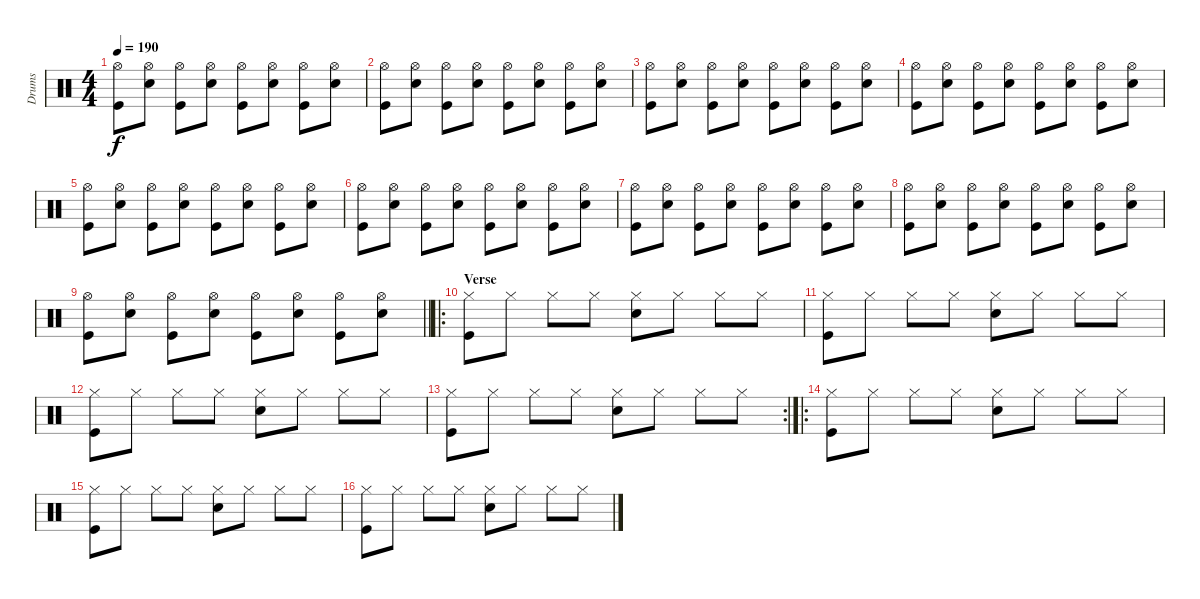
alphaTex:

\track ("Drums" "Drums") {instrument percussion}
\staff {score}
\articulation defaults
\ts (4 4)
\tempo 190
\clef neutral
\ks c
("Hi-Hat (open)" "Kick (hit)").8{dy f} ("Hi-Hat (open)" "Snare (hit) 2").8 ("Hi-Hat (open)" "Kick (hit)").8 ("Hi-Hat (open)" "Snare (hit) 2").8 ("Hi-Hat (open)" "Kick (hit)").8 ("Hi-Hat (open)" "Snare (hit) 2").8 ("Hi-Hat (open)" "Kick (hit)").8 ("Hi-Hat (open)" "Snare (hit) 2").8 |
("Hi-Hat (open)" "Kick (hit)").8 ("Hi-Hat (open)" "Snare (hit) 2").8 ("Hi-Hat (open)" "Kick (hit)").8 ("Hi-Hat (open)" "Snare (hit) 2").8 ("Hi-Hat (open)" "Kick (hit)").8 ("Hi-Hat (open)" "Snare (hit) 2").8 ("Hi-Hat (open)" "Kick (hit)").8 ("Hi-Hat (open)" "Snare (hit) 2").8 |
("Hi-Hat (open)" "Kick (hit)").8 ("Hi-Hat (open)" "Snare (hit) 2").8 ("Hi-Hat (open)" "Kick (hit)").8 ("Hi-Hat (open)" "Snare (hit) 2").8 ("Hi-Hat (open)" "Kick (hit)").8 ("Hi-Hat (open)" "Snare (hit) 2").8 ("Hi-Hat (open)" "Kick (hit)").8 ("Hi-Hat (open)" "Snare (hit) 2").8 |
("Hi-Hat (open)" "Kick (hit)").8 ("Hi-Hat (open)" "Snare (hit) 2").8 ("Hi-Hat (open)" "Kick (hit)").8 ("Hi-Hat (open)" "Snare (hit) 2").8 ("Hi-Hat (open)" "Kick (hit)").8 ("Hi-Hat (open)" "Snare (hit) 2").8 ("Hi-Hat (open)" "Kick (hit)").8 ("Hi-Hat (open)" "Snare (hit) 2").8 |
("Hi-Hat (open)" "Kick (hit)").8 ("Hi-Hat (open)" "Snare (hit) 2").8 ("Hi-Hat (open)" "Kick (hit)").8 ("Hi-Hat (open)" "Snare (hit) 2").8 ("Hi-Hat (open)" "Kick (hit)").8 ("Hi-Hat (open)" "Snare (hit) 2").8 ("Hi-Hat (open)" "Kick (hit)").8 ("Hi-Hat (open)" "Snare (hit) 2").8 |
("Hi-Hat (open)" "Kick (hit)").8 ("Hi-Hat (open)" "Snare (hit) 2").8 ("Hi-Hat (open)" "Kick (hit)").8 ("Hi-Hat (open)" "Snare (hit) 2").8 ("Hi-Hat (open)" "Kick (hit)").8 ("Hi-Hat (open)" "Snare (hit) 2").8 ("Hi-Hat (open)" "Kick (hit)").8 ("Hi-Hat (open)" "Snare (hit) 2").8 |
("Hi-Hat (open)" "Kick (hit)").8 ("Hi-Hat (open)" "Snare (hit) 2").8 ("Hi-Hat (open)" "Kick (hit)").8 ("Hi-Hat (open)" "Snare (hit) 2").8 ("Hi-Hat (open)" "Kick (hit)").8 ("Hi-Hat (open)" "Snare (hit) 2").8 ("Hi-Hat (open)" "Kick (hit)").8 ("Hi-Hat (open)" "Snare (hit) 2").8 |
("Hi-Hat (open)" "Kick (hit)").8 ("Hi-Hat (open)" "Snare (hit) 2").8 ("Hi-Hat (open)" "Kick (hit)").8 ("Hi-Hat (open)" "Snare (hit) 2").8 ("Hi-Hat (open)" "Kick (hit)").8 ("Hi-Hat (open)" "Snare (hit) 2").8 ("Hi-Hat (open)" "Kick (hit)").8 ("Hi-Hat (open)" "Snare (hit) 2").8 |
\barLineRight lightlight
("Hi-Hat (open)" "Kick (hit)").8 ("Hi-Hat (open)" "Snare (hit) 2").8 ("Hi-Hat (open)" "Kick (hit)").8 ("Hi-Hat (open)" "Snare (hit) 2").8 ("Hi-Hat (open)" "Kick (hit)").8 ("Hi-Hat (open)" "Snare (hit) 2").8 ("Hi-Hat (open)" "Kick (hit)").8 ("Hi-Hat (open)" "Snare (hit) 2").8 |
\ro
\section ("" "Verse")
("Hi-Hat (closed)" "Kick (hit)").8 "Hi-Hat (closed)".8 "Hi-Hat (closed)".8 "Hi-Hat (closed)".8 ("Hi-Hat (closed)" "Snare (hit) 2").8 "Hi-Hat (closed)".8 "Hi-Hat (closed)".8 "Hi-Hat (closed)".8 |
("Hi-Hat (closed)" "Kick (hit)").8 "Hi-Hat (closed)".8 "Hi-Hat (closed)".8 "Hi-Hat (closed)".8 ("Hi-Hat (closed)" "Snare (hit) 2").8 "Hi-Hat (closed)".8 "Hi-Hat (closed)".8 "Hi-Hat (closed)".8 |
("Hi-Hat (closed)" "Kick (hit)").8 "Hi-Hat (closed)".8 "Hi-Hat (closed)".8 "Hi-Hat (closed)".8 ("Hi-Hat (closed)" "Snare (hit) 2").8 "Hi-Hat (closed)".8 "Hi-Hat (closed)".8 "Hi-Hat (closed)".8 |
\rc 2
("Hi-Hat (closed)" "Kick (hit)").8 "Hi-Hat (closed)".8 "Hi-Hat (closed)".8 "Hi-Hat (closed)".8 ("Hi-Hat (closed)" "Snare (hit) 2").8 "Hi-Hat (closed)".8 "Hi-Hat (closed)".8 "Hi-Hat (closed)".8 |
\ro
("Hi-Hat (closed)" "Kick (hit)").8 "Hi-Hat (closed)".8 "Hi-Hat (closed)".8 "Hi-Hat (closed)".8 ("Hi-Hat (closed)" "Snare (hit) 2").8 "Hi-Hat (closed)".8 "Hi-Hat (closed)".8 "Hi-Hat (closed)".8 |
("Hi-Hat (closed)" "Kick (hit)").8 "Hi-Hat (closed)".8 "Hi-Hat (closed)".8 "Hi-Hat (closed)".8 ("Hi-Hat (closed)" "Snare (hit) 2").8 "Hi-Hat (closed)".8 "Hi-Hat (closed)".8 "Hi-Hat (closed)".8 |
("Hi-Hat (closed)" "Kick (hit)").8 "Hi-Hat (closed)".8 "Hi-Hat (closed)".8 "Hi-Hat (closed)".8 ("Hi-Hat (closed)" "Snare (hit) 2").8 "Hi-Hat (closed)".8 "Hi-Hat (closed)".8 "Hi-Hat (closed)".8
